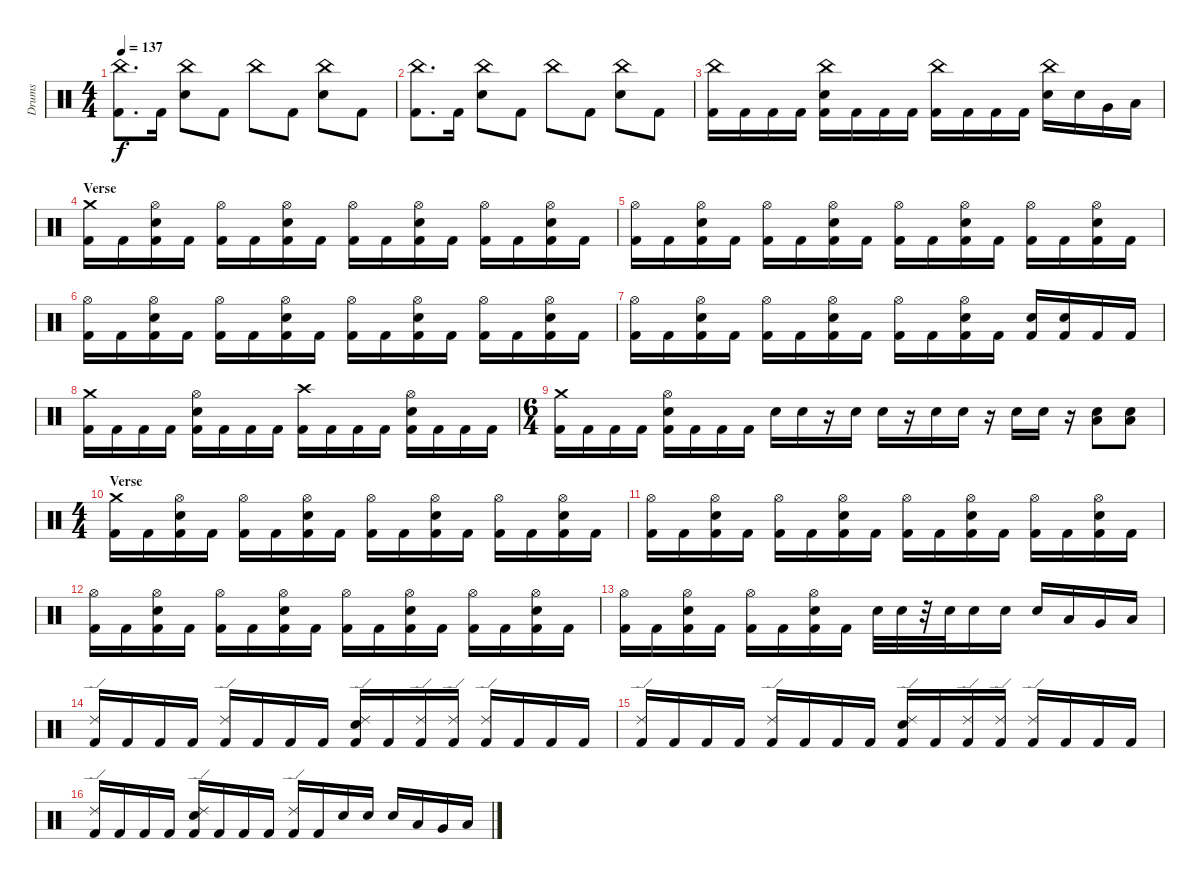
\track ("Drums" "Drums") {instrument percussion}
\staff {score}
\articulation defaults
\ts (4 4)
\tempo 137
\clef neutral
\ks c
("China (hit)" "Kick (hit) 2").8{d dy f} "Kick (hit) 2".16 ("China (hit)" "Electric Snare (hit)").8 "Kick (hit) 2".8 "China (hit)".8 "Kick (hit) 2".8 ("China (hit)" "Electric Snare (hit)").8 "Kick (hit) 2".8 |
("China (hit)" "Kick (hit) 2").8{d} "Kick (hit) 2".16 ("China (hit)" "Electric Snare (hit)").8 "Kick (hit) 2".8 "China (hit)".8 "Kick (hit) 2".8 ("China (hit)" "Electric Snare (hit)").8 "Kick (hit) 2".8 |
("China (hit)" "Kick (hit) 2").16 "Kick (hit) 2".16 "Kick (hit) 2".16 "Kick (hit) 2".16 ("Kick (hit) 2" "China (hit)" "Electric Snare (hit)").16 "Kick (hit) 2".16 "Kick (hit) 2".16 "Kick (hit) 2".16 ("Kick (hit) 2" "China (hit)").16 "Kick (hit) 2".16 "Kick (hit) 2".16 "Kick (hit) 2".16 ("China (hit)" "Electric Snare (hit)").16 "Electric Snare (hit)".16 "Very Low Tom (hit)".16 "Low Floor Tom (hit)".16 |
\section ("" "Verse")
("Crash medium (hit)" "Kick (hit) 2").16 "Kick (hit) 2".16 ("Hi-Hat (open)" "Electric Snare (hit)" "Kick (hit) 2").16 "Kick (hit) 2".16 ("Hi-Hat (open)" "Kick (hit) 2").16 "Kick (hit) 2".16 ("Hi-Hat (open)" "Electric Snare (hit)" "Kick (hit) 2").16 "Kick (hit) 2".16 ("Hi-Hat (open)" "Kick (hit) 2").16 "Kick (hit) 2".16 ("Hi-Hat (open)" "Electric Snare (hit)" "Kick (hit) 2").16 "Kick (hit) 2".16 ("Hi-Hat (open)" "Kick (hit) 2").16 "Kick (hit) 2".16 ("Hi-Hat (open)" "Electric Snare (hit)" "Kick (hit) 2").16 "Kick (hit) 2".16 |
("Hi-Hat (open)" "Kick (hit) 2").16 "Kick (hit) 2".16 ("Hi-Hat (open)" "Electric Snare (hit)" "Kick (hit) 2").16 "Kick (hit) 2".16 ("Hi-Hat (open)" "Kick (hit) 2").16 "Kick (hit) 2".16 ("Hi-Hat (open)" "Electric Snare (hit)" "Kick (hit) 2").16 "Kick (hit) 2".16 ("Hi-Hat (open)" "Kick (hit) 2").16 "Kick (hit) 2".16 ("Hi-Hat (open)" "Electric Snare (hit)" "Kick (hit) 2").16 "Kick (hit) 2".16 ("Hi-Hat (open)" "Kick (hit) 2").16 "Kick (hit) 2".16 ("Hi-Hat (open)" "Electric Snare (hit)" "Kick (hit) 2").16 "Kick (hit) 2".16 |
("Hi-Hat (open)" "Kick (hit) 2").16 "Kick (hit) 2".16 ("Hi-Hat (open)" "Electric Snare (hit)" "Kick (hit) 2").16 "Kick (hit) 2".16 ("Hi-Hat (open)" "Kick (hit) 2").16 "Kick (hit) 2".16 ("Hi-Hat (open)" "Electric Snare (hit)" "Kick (hit) 2").16 "Kick (hit) 2".16 ("Hi-Hat (open)" "Kick (hit) 2").16 "Kick (hit) 2".16 ("Hi-Hat (open)" "Electric Snare (hit)" "Kick (hit) 2").16 "Kick (hit) 2".16 ("Hi-Hat (open)" "Kick (hit) 2").16 "Kick (hit) 2".16 ("Hi-Hat (open)" "Electric Snare (hit)" "Kick (hit) 2").16 "Kick (hit) 2".16 |
("Hi-Hat (open)" "Kick (hit) 2").16 "Kick (hit) 2".16 ("Hi-Hat (open)" "Electric Snare (hit)" "Kick (hit) 2").16 "Kick (hit) 2".16 ("Hi-Hat (open)" "Kick (hit) 2").16 "Kick (hit) 2".16 ("Hi-Hat (open)" "Electric Snare (hit)" "Kick (hit) 2").16 "Kick (hit) 2".16 ("Hi-Hat (open)" "Kick (hit) 2").16 "Kick (hit) 2".16 ("Hi-Hat (open)" "Electric Snare (hit)" "Kick (hit) 2").16 "Kick (hit) 2".16 ("Electric Snare (hit)" "Kick (hit) 2").16 ("Electric Snare (hit)" "Kick (hit) 2").16 "Kick (hit) 2".16 "Kick (hit) 2".16 |
("Kick (hit) 2" "Crash medium (hit)").16 "Kick (hit) 2".16 "Kick (hit) 2".16 "Kick (hit) 2".16 ("Kick (hit) 2" "Electric Snare (hit)" "Hi-Hat (open)").16 "Kick (hit) 2".16 "Kick (hit) 2".16 "Kick (hit) 2".16 ("Crash high (hit)" "Kick (hit) 2").16 "Kick (hit) 2".16 "Kick (hit) 2".16 "Kick (hit) 2".16 ("Kick (hit) 2" "Electric Snare (hit)" "Hi-Hat (open)").16 "Kick (hit) 2".16 "Kick (hit) 2".16 "Kick (hit) 2".16 |
\ts (6 4)
("Kick (hit) 2" "Crash medium (hit)").16 "Kick (hit) 2".16 "Kick (hit) 2".16 "Kick (hit) 2".16 ("Kick (hit) 2" "Electric Snare (hit)" "Hi-Hat (open)").16 "Kick (hit) 2".16 "Kick (hit) 2".16 "Kick (hit) 2".16 "Electric Snare (hit)".16 "Electric Snare (hit)".16 r.16 "Electric Snare (hit)".16 "Electric Snare (hit)".16 r.16 "Electric Snare (hit)".16 "Electric Snare (hit)".16 r.16 "Electric Snare (hit)".16 "Electric Snare (hit)".16 r.16 ("Low Floor Tom (hit)" "Electric Snare (hit)").8 ("Low Floor Tom (hit)" "Electric Snare (hit)").8 |
\ts (4 4)
\section ("" "Verse")
("Crash medium (hit)" "Kick (hit) 2").16 "Kick (hit) 2".16 ("Hi-Hat (open)" "Electric Snare (hit)" "Kick (hit) 2").16 "Kick (hit) 2".16 ("Hi-Hat (open)" "Kick (hit) 2").16 "Kick (hit) 2".16 ("Hi-Hat (open)" "Electric Snare (hit)" "Kick (hit) 2").16 "Kick (hit) 2".16 ("Hi-Hat (open)" "Kick (hit) 2").16 "Kick (hit) 2".16 ("Hi-Hat (open)" "Electric Snare (hit)" "Kick (hit) 2").16 "Kick (hit) 2".16 ("Hi-Hat (open)" "Kick (hit) 2").16 "Kick (hit) 2".16 ("Hi-Hat (open)" "Electric Snare (hit)" "Kick (hit) 2").16 "Kick (hit) 2".16 |
("Hi-Hat (open)" "Kick (hit) 2").16 "Kick (hit) 2".16 ("Hi-Hat (open)" "Electric Snare (hit)" "Kick (hit) 2").16 "Kick (hit) 2".16 ("Hi-Hat (open)" "Kick (hit) 2").16 "Kick (hit) 2".16 ("Hi-Hat (open)" "Electric Snare (hit)" "Kick (hit) 2").16 "Kick (hit) 2".16 ("Hi-Hat (open)" "Kick (hit) 2").16 "Kick (hit) 2".16 ("Hi-Hat (open)" "Electric Snare (hit)" "Kick (hit) 2").16 "Kick (hit) 2".16 ("Hi-Hat (open)" "Kick (hit) 2").16 "Kick (hit) 2".16 ("Hi-Hat (open)" "Electric Snare (hit)" "Kick (hit) 2").16 "Kick (hit) 2".16 |
("Hi-Hat (open)" "Kick (hit) 2").16 "Kick (hit) 2".16 ("Hi-Hat (open)" "Electric Snare (hit)" "Kick (hit) 2").16 "Kick (hit) 2".16 ("Hi-Hat (open)" "Kick (hit) 2").16 "Kick (hit) 2".16 ("Hi-Hat (open)" "Electric Snare (hit)" "Kick (hit) 2").16 "Kick (hit) 2".16 ("Hi-Hat (open)" "Kick (hit) 2").16 "Kick (hit) 2".16 ("Hi-Hat (open)" "Electric Snare (hit)" "Kick (hit) 2").16 "Kick (hit) 2".16 ("Hi-Hat (open)" "Kick (hit) 2").16 "Kick (hit) 2".16 ("Hi-Hat (open)" "Electric Snare (hit)" "Kick (hit) 2").16 "Kick (hit) 2".16 |
("Hi-Hat (open)" "Kick (hit) 2").16 "Kick (hit) 2".16 ("Hi-Hat (open)" "Electric Snare (hit)" "Kick (hit) 2").16 "Kick (hit) 2".16 ("Hi-Hat (open)" "Kick (hit) 2").16 "Kick (hit) 2".16 ("Hi-Hat (open)" "Electric Snare (hit)" "Kick (hit) 2").16 "Kick (hit) 2".16 "Electric Snare (hit)".32 "Electric Snare (hit)".32 r.32 "Electric Snare (hit)".32 "Electric Snare (hit)".16 "Electric Snare (hit)".16 "Electric Snare (hit)".16 "Low Tom (hit)".16 "Very Low Tom (hit)".16 "Low Floor Tom (hit)".16 |
("Kick (hit) 2" "Ride (edge) 2").16 "Kick (hit) 2".16 "Kick (hit) 2".16 "Kick (hit) 2".16 ("Kick (hit) 2" "Ride (edge) 2").16 "Kick (hit) 2".16 "Kick (hit) 2".16 "Kick (hit) 2".16 ("Electric Snare (hit)" "Kick (hit) 2" "Ride (edge) 2").16 "Kick (hit) 2".16 ("Kick (hit) 2" "Ride (edge) 2").16 ("Kick (hit) 2" "Ride (edge) 2").16 ("Kick (hit) 2" "Ride (edge) 2").16 "Kick (hit) 2".16 "Kick (hit) 2".16 "Kick (hit) 2".16 |
("Kick (hit) 2" "Ride (edge) 2").16 "Kick (hit) 2".16 "Kick (hit) 2".16 "Kick (hit) 2".16 ("Kick (hit) 2" "Ride (edge) 2").16 "Kick (hit) 2".16 "Kick (hit) 2".16 "Kick (hit) 2".16 ("Electric Snare (hit)" "Kick (hit) 2" "Ride (edge) 2").16 "Kick (hit) 2".16 ("Kick (hit) 2" "Ride (edge) 2").16 ("Kick (hit) 2" "Ride (edge) 2").16 ("Kick (hit) 2" "Ride (edge) 2").16 "Kick (hit) 2".16 "Kick (hit) 2".16 "Kick (hit) 2".16 |
("Kick (hit) 2" "Ride (edge) 2").16 "Kick (hit) 2".16 "Kick (hit) 2".16 "Kick (hit) 2".16 ("Electric Snare (hit)" "Kick (hit) 2" "Ride (edge) 2").16 "Kick (hit) 2".16 "Kick (hit) 2".16 "Kick (hit) 2".16 ("Ride (edge) 2" "Kick (hit) 2").16 "Kick (hit) 2".16 "Electric Snare (hit)".16 "Electric Snare (hit)".16 "Electric Snare (hit)".16 "Low Tom (hit)".16 "Very Low Tom (hit)".16 "Low Floor Tom (hit)".16
